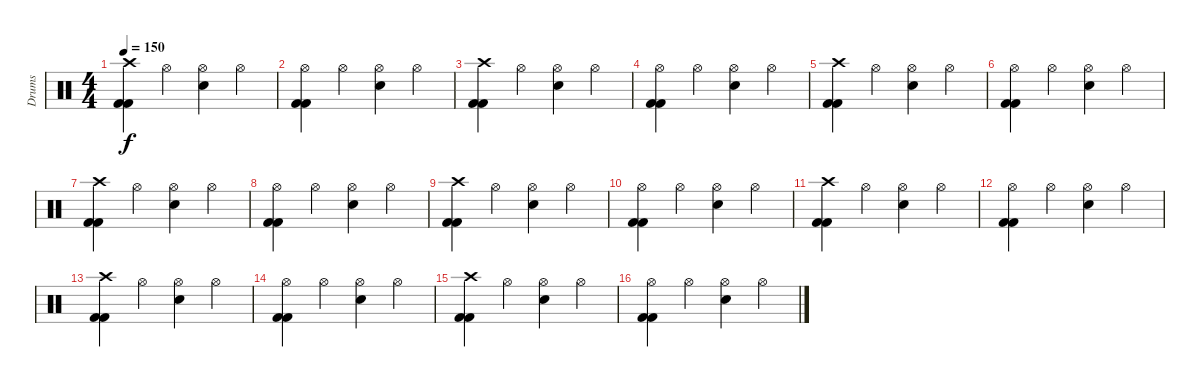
\track ("Drums" "Drums") {instrument percussion}
\staff {score}
\articulation defaults
\ts (4 4)
\tempo 150
\clef neutral
\ks c
("Crash high (hit)" "Kick (hit) 2" "Kick (hit) 2").4{dy f} "Hi-Hat (open)".4 ("Electric Snare (hit)" "Hi-Hat (open)").4 "Hi-Hat (open)".4 |
("Hi-Hat (open)" "Kick (hit) 2" "Kick (hit) 2").4 "Hi-Hat (open)".4 ("Electric Snare (hit)" "Hi-Hat (open)").4 "Hi-Hat (open)".4 |
("Crash high (hit)" "Kick (hit) 2" "Kick (hit) 2").4 "Hi-Hat (open)".4 ("Electric Snare (hit)" "Hi-Hat (open)").4 "Hi-Hat (open)".4 |
("Hi-Hat (open)" "Kick (hit) 2" "Kick (hit) 2").4 "Hi-Hat (open)".4 ("Electric Snare (hit)" "Hi-Hat (open)").4 "Hi-Hat (open)".4 |
("Crash high (hit)" "Kick (hit) 2" "Kick (hit) 2").4 "Hi-Hat (open)".4 ("Electric Snare (hit)" "Hi-Hat (open)").4 "Hi-Hat (open)".4 |
("Hi-Hat (open)" "Kick (hit) 2" "Kick (hit) 2").4 "Hi-Hat (open)".4 ("Electric Snare (hit)" "Hi-Hat (open)").4 "Hi-Hat (open)".4 |
("Crash high (hit)" "Kick (hit) 2" "Kick (hit) 2").4 "Hi-Hat (open)".4 ("Electric Snare (hit)" "Hi-Hat (open)").4 "Hi-Hat (open)".4 |
("Hi-Hat (open)" "Kick (hit) 2" "Kick (hit) 2").4 "Hi-Hat (open)".4 ("Electric Snare (hit)" "Hi-Hat (open)").4 "Hi-Hat (open)".4 |
("Crash high (hit)" "Kick (hit) 2" "Kick (hit) 2").4 "Hi-Hat (open)".4 ("Electric Snare (hit)" "Hi-Hat (open)").4 "Hi-Hat (open)".4 |
("Hi-Hat (open)" "Kick (hit) 2" "Kick (hit) 2").4 "Hi-Hat (open)".4 ("Electric Snare (hit)" "Hi-Hat (open)").4 "Hi-Hat (open)".4 |
("Crash high (hit)" "Kick (hit) 2" "Kick (hit) 2").4 "Hi-Hat (open)".4 ("Electric Snare (hit)" "Hi-Hat (open)").4 "Hi-Hat (open)".4 |
("Hi-Hat (open)" "Kick (hit) 2" "Kick (hit) 2").4 "Hi-Hat (open)".4 ("Electric Snare (hit)" "Hi-Hat (open)").4 "Hi-Hat (open)".4 |
("Crash high (hit)" "Kick (hit) 2" "Kick (hit) 2").4 "Hi-Hat (open)".4 ("Electric Snare (hit)" "Hi-Hat (open)").4 "Hi-Hat (open)".4 |
("Hi-Hat (open)" "Kick (hit) 2" "Kick (hit) 2").4 "Hi-Hat (open)".4 ("Electric Snare (hit)" "Hi-Hat (open)").4 "Hi-Hat (open)".4 |
("Crash high (hit)" "Kick (hit) 2" "Kick (hit) 2").4 "Hi-Hat (open)".4 ("Electric Snare (hit)" "Hi-Hat (open)").4 "Hi-Hat (open)".4 |
("Hi-Hat (open)" "Kick (hit) 2" "Kick (hit) 2").4 "Hi-Hat (open)".4 ("Electric Snare (hit)" "Hi-Hat (open)").4 "Hi-Hat (open)".4
